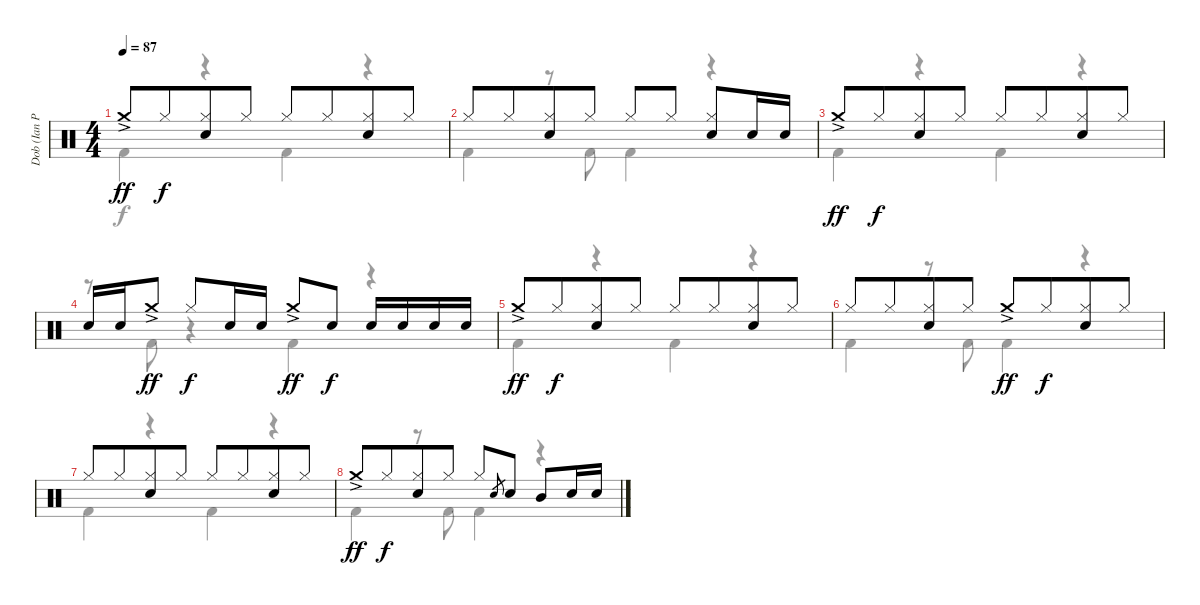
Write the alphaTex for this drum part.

\track ("Dob (Ian Paice)" "Dob (Ian P") {instrument percussion}
\staff {score}
\articulation defaults
\voice
\ts (4 4)
\tempo 87
\clef neutral
\ks c "Crash medium (hit)"{ac}.8{dy ff} "Hi-Hat (closed)".8{dy f beam merge}
("Hi-Hat (closed)" "Electric Snare (hit)").8 "Hi-Hat (closed)".8 "Hi-Hat (closed)".8 "Hi-Hat (closed)".8{beam merge} ("Hi-Hat (closed)" "Electric Snare (hit)").8 "Hi-Hat (closed)".8 |
"Hi-Hat (closed)".8 "Hi-Hat (closed)".8{beam merge} ("Hi-Hat (closed)" "Electric Snare (hit)").8 "Hi-Hat (closed)".8 "Hi-Hat (closed)".8 "Hi-Hat (closed)".8{beam split} ("Hi-Hat (closed)" "Electric Snare (hit)").8 "Electric Snare (hit)".16 "Electric Snare (hit)".16 |
"Crash medium (hit)"{ac}.8{dy ff} "Hi-Hat (closed)".8{dy f beam merge} ("Hi-Hat (closed)" "Electric Snare (hit)").8 "Hi-Hat (closed)".8 "Hi-Hat (closed)".8 "Hi-Hat (closed)".8{beam merge} ("Hi-Hat (closed)" "Electric Snare (hit)").8 "Hi-Hat (closed)".8 |
"Electric Snare (hit)".16 "Electric Snare (hit)".16 "Crash medium (hit)"{ac}.8{dy ff} "Hi-Hat (closed)".8{dy f} "Electric Snare (hit)".16 "Electric Snare (hit)".16 "Crash medium (hit)"{ac}.8{dy ff} "Electric Snare (hit)".8{dy f} "Electric Snare (hit)".16 "Electric Snare (hit)".16 "Electric Snare (hit)".16 "Electric Snare (hit)".16 |
"Crash medium (hit)"{ac}.8{dy ff} "Hi-Hat (closed)".8{dy f beam merge} ("Hi-Hat (closed)" "Electric Snare (hit)").8 "Hi-Hat (closed)".8 "Hi-Hat (closed)".8 "Hi-Hat (closed)".8{beam merge} ("Hi-Hat (closed)" "Electric Snare (hit)").8 "Hi-Hat (closed)".8 |
"Hi-Hat (closed)".8 "Hi-Hat (closed)".8{beam merge} ("Hi-Hat (closed)" "Electric Snare (hit)").8 "Hi-Hat (closed)".8 "Crash medium (hit)"{ac}.8{dy ff} "Hi-Hat (closed)".8{dy f beam merge} ("Hi-Hat (closed)" "Electric Snare (hit)").8 "Hi-Hat (closed)".8 |
"Hi-Hat (closed)".8 "Hi-Hat (closed)".8{beam merge} ("Hi-Hat (closed)" "Electric Snare (hit)").8 "Hi-Hat (closed)".8 "Hi-Hat (closed)".8 "Hi-Hat (closed)".8{beam merge} ("Hi-Hat (closed)" "Electric Snare (hit)").8 "Hi-Hat (closed)".8 |
"Crash medium (hit)"{ac}.8{dy ff} "Hi-Hat (closed)".8{dy f beam merge} ("Hi-Hat (closed)" "Electric Snare (hit)").8 "Hi-Hat (closed)".8 "Hi-Hat (closed)".8 "Electric Snare (hit)".8{gr} "Electric Snare (hit)".8 "Mid Tom (hit)".8 "Electric Snare (hit)".16 "Electric Snare (hit)".16 |
\voice
\clef neutral
\ottava regular
\simile none
\ks c "Kick (hit) 2".4{dy f}
r.4 "Kick (hit) 2".4 r.4 |
"Kick (hit) 2".4 r.8 "Kick (hit) 2".8 "Kick (hit) 2".4 r.4 |
"Kick (hit) 2".4 r.4 "Kick (hit) 2".4 r.4 |
r.8 "Kick (hit) 2".8 r.4 "Kick (hit) 2".4 r.4 |
"Kick (hit) 2".4 r.4 "Kick (hit) 2".4 r.4 |
"Kick (hit) 2".4 r.8 "Kick (hit) 2".8 "Kick (hit) 2".4 r.4 |
"Kick (hit) 2".4 r.4 "Kick (hit) 2".4 r.4 |
"Kick (hit) 2".4 r.8 "Kick (hit) 2".8 "Kick (hit) 2".4 r.4 |
